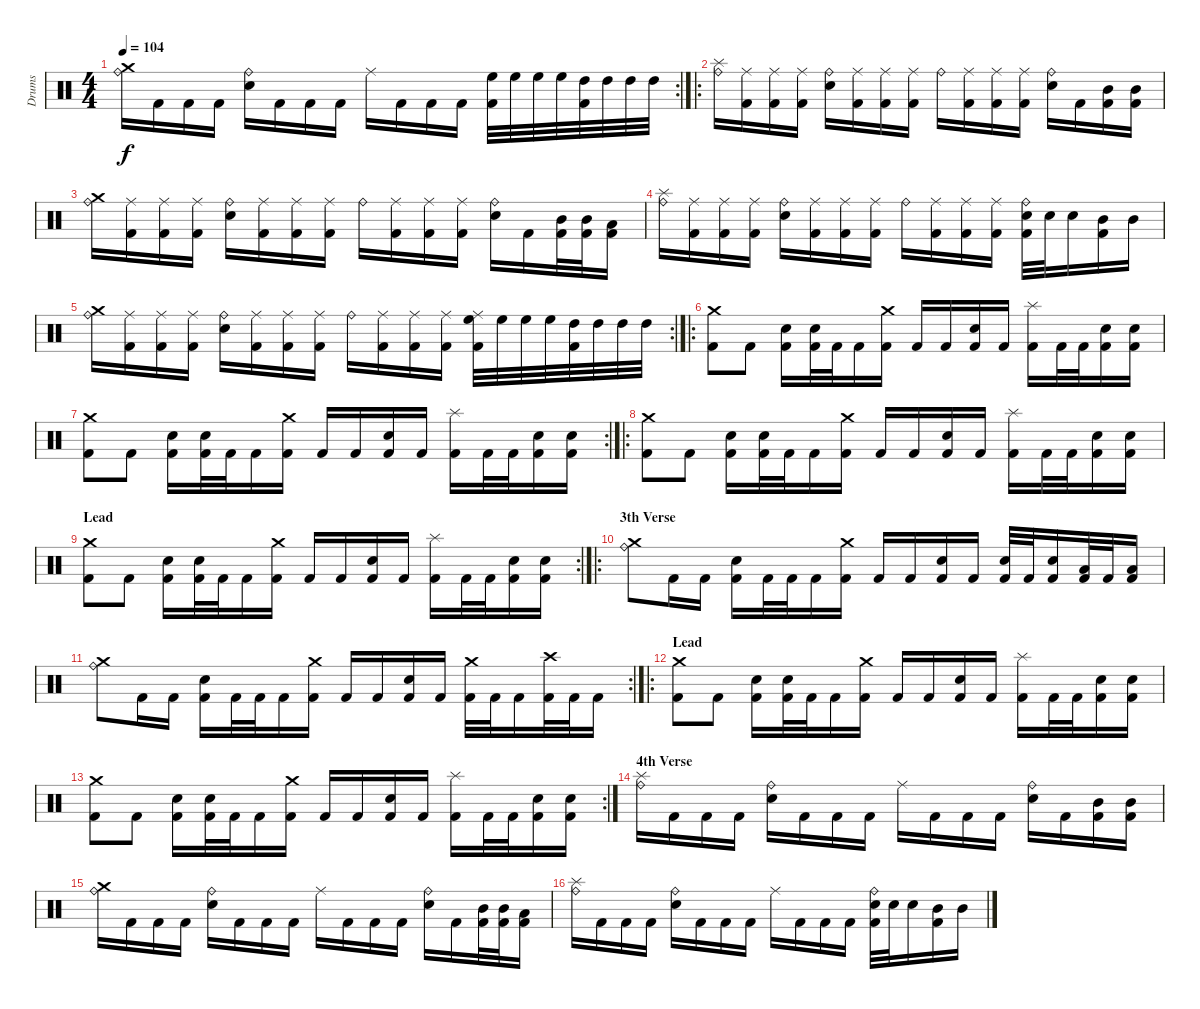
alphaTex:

\track ("Drums" "Drums") {instrument percussion}
\staff {score}
\articulation defaults
\rc 2
\ts (4 4)
\tempo 104
\clef neutral
\ks c
("Ride (bell)" "Crash medium (hit)").16{dy f} "Kick (hit) 2".16 "Kick (hit) 2".16 "Kick (hit) 2".16 ("Ride (bell)" "Snare (hit) 2").16 "Kick (hit) 2".16 "Kick (hit) 2".16 "Kick (hit) 2".16 "Ride (middle)".16 "Kick (hit) 2".16 "Kick (hit) 2".16 "Kick (hit) 2".16 ("High Floor Tom (hit)" "Kick (hit) 2").32 "High Floor Tom (hit)".32 "High Floor Tom (hit)".32 "High Floor Tom (hit)".32 ("High Tom (hit)" "Kick (hit) 2").32 "High Tom (hit)".32 "High Tom (hit)".32 "High Tom (hit)".32 |
\ro
("Ride (bell)" "Splash (hit)").16 ("Ride (middle)" "Kick (hit) 2").16 ("Ride (middle)" "Kick (hit) 2").16 ("Ride (middle)" "Kick (hit) 2").16 ("Ride (bell)" "Snare (hit) 2").16 ("Ride (middle)" "Kick (hit) 2").16 ("Ride (middle)" "Kick (hit) 2").16 ("Ride (middle)" "Kick (hit) 2").16 "Ride (bell)".16 ("Ride (middle)" "Kick (hit) 2").16 ("Ride (middle)" "Kick (hit) 2").16 ("Ride (middle)" "Kick (hit) 2").16 ("Ride (bell)" "Snare (hit) 2").16 "Kick (hit) 2".16 ("Mid Tom (hit)" "Kick (hit) 2").16 ("Mid Tom (hit)" "Kick (hit) 2").16 |
("Ride (bell)" "Crash medium (hit)").16 ("Ride (middle)" "Kick (hit) 2").16 ("Ride (middle)" "Kick (hit) 2").16 ("Ride (middle)" "Kick (hit) 2").16 ("Ride (bell)" "Snare (hit) 2").16 ("Ride (middle)" "Kick (hit) 2").16 ("Ride (middle)" "Kick (hit) 2").16 ("Ride (middle)" "Kick (hit) 2").16 "Ride (bell)".16 ("Ride (middle)" "Kick (hit) 2").16 ("Ride (middle)" "Kick (hit) 2").16 ("Ride (middle)" "Kick (hit) 2").16 ("Ride (bell)" "Snare (hit) 2").16 "Kick (hit) 2".16 ("Mid Tom (hit)" "Kick (hit) 2").32 ("Mid Tom (hit)" "Kick (hit) 2").32 ("Low Tom (hit)" "Kick (hit) 2").16 |
("Ride (bell)" "Splash (hit)").16 ("Ride (middle)" "Kick (hit) 2").16 ("Ride (middle)" "Kick (hit) 2").16 ("Ride (middle)" "Kick (hit) 2").16 ("Ride (bell)" "Snare (hit) 2").16 ("Ride (middle)" "Kick (hit) 2").16 ("Ride (middle)" "Kick (hit) 2").16 ("Ride (middle)" "Kick (hit) 2").16 "Ride (bell)".16 ("Ride (middle)" "Kick (hit) 2").16 ("Ride (middle)" "Kick (hit) 2").16 ("Ride (middle)" "Kick (hit) 2").16 ("Ride (bell)" "Snare (hit) 2" "Kick (hit) 2").32 "Snare (hit) 2".32 "Snare (hit) 2".16 ("Mid Tom (hit)" "Kick (hit) 2").16 "Mid Tom (hit)".16 |
\rc 2
("Ride (bell)" "Crash medium (hit)").16 ("Ride (middle)" "Kick (hit) 2").16 ("Ride (middle)" "Kick (hit) 2").16 ("Ride (middle)" "Kick (hit) 2").16 ("Ride (bell)" "Snare (hit) 2").16 ("Ride (middle)" "Kick (hit) 2").16 ("Ride (middle)" "Kick (hit) 2").16 ("Ride (middle)" "Kick (hit) 2").16 "Ride (bell)".16 ("Ride (middle)" "Kick (hit) 2").16 ("Ride (middle)" "Kick (hit) 2").16 ("Ride (middle)" "Kick (hit) 2").16 ("Ride (middle)" "High Floor Tom (hit)" "Kick (hit) 2").32 "High Floor Tom (hit)".32 "High Floor Tom (hit)".32 "High Floor Tom (hit)".32 ("High Tom (hit)" "Kick (hit) 2").32 "High Tom (hit)".32 "High Tom (hit)".32 "High Tom (hit)".32 |
\ro
("Crash medium (hit)" "Kick (hit) 2").8 "Kick (hit) 2".8 ("Snare (hit) 2" "Kick (hit) 2").16 ("Snare (hit) 2" "Kick (hit) 2").32 "Kick (hit) 2".32 "Kick (hit) 2".16 ("Crash medium (hit)" "Kick (hit) 2").16 "Kick (hit) 2".16 "Kick (hit) 2".16 ("Snare (hit) 2" "Kick (hit) 2").16 "Kick (hit) 2".16 ("Splash (hit)" "Kick (hit) 2").16 "Kick (hit) 2".32 "Kick (hit) 2".32 ("Snare (hit) 2" "Kick (hit) 2").16 ("Snare (hit) 2" "Kick (hit) 2").16 |
\rc 2
("Crash medium (hit)" "Kick (hit) 2").8 "Kick (hit) 2".8 ("Snare (hit) 2" "Kick (hit) 2").16 ("Snare (hit) 2" "Kick (hit) 2").32 "Kick (hit) 2".32 "Kick (hit) 2".16 ("Crash medium (hit)" "Kick (hit) 2").16 "Kick (hit) 2".16 "Kick (hit) 2".16 ("Snare (hit) 2" "Kick (hit) 2").16 "Kick (hit) 2".16 ("Splash (hit)" "Kick (hit) 2").16 "Kick (hit) 2".32 "Kick (hit) 2".32 ("Snare (hit) 2" "Kick (hit) 2").16 ("Snare (hit) 2" "Kick (hit) 2").16 |
\ro
("Crash medium (hit)" "Kick (hit) 2").8 "Kick (hit) 2".8 ("Snare (hit) 2" "Kick (hit) 2").16 ("Snare (hit) 2" "Kick (hit) 2").32 "Kick (hit) 2".32 "Kick (hit) 2".16 ("Crash medium (hit)" "Kick (hit) 2").16 "Kick (hit) 2".16 "Kick (hit) 2".16 ("Snare (hit) 2" "Kick (hit) 2").16 "Kick (hit) 2".16 ("Splash (hit)" "Kick (hit) 2").16 "Kick (hit) 2".32 "Kick (hit) 2".32 ("Snare (hit) 2" "Kick (hit) 2").16 ("Snare (hit) 2" "Kick (hit) 2").16 |
\rc 2
\section ("" "Lead")
("Crash medium (hit)" "Kick (hit) 2").8 "Kick (hit) 2".8 ("Snare (hit) 2" "Kick (hit) 2").16 ("Snare (hit) 2" "Kick (hit) 2").32 "Kick (hit) 2".32 "Kick (hit) 2".16 ("Crash medium (hit)" "Kick (hit) 2").16 "Kick (hit) 2".16 "Kick (hit) 2".16 ("Snare (hit) 2" "Kick (hit) 2").16 "Kick (hit) 2".16 ("Splash (hit)" "Kick (hit) 2").16 "Kick (hit) 2".32 "Kick (hit) 2".32 ("Snare (hit) 2" "Kick (hit) 2").16 ("Snare (hit) 2" "Kick (hit) 2").16 |
\ro
\section ("" "3th Verse")
("Crash medium (hit)" "Ride (bell)").8 "Kick (hit) 2".16 "Kick (hit) 2".16 ("Snare (hit) 2" "Kick (hit) 2").16 "Kick (hit) 2".32 "Kick (hit) 2".32 "Kick (hit) 2".16 ("Crash medium (hit)" "Kick (hit) 2").16 "Kick (hit) 2".16 "Kick (hit) 2".16 ("Snare (hit) 2" "Kick (hit) 2").16 "Kick (hit) 2".16 ("Snare (hit) 2" "Kick (hit) 2").32 "Kick (hit) 2".32 ("Snare (hit) 2" "Kick (hit) 2").16 ("Low Tom (hit)" "Kick (hit) 2").32 "Kick (hit) 2".32 ("Low Tom (hit)" "Kick (hit) 2").16 |
\rc 2
("Crash medium (hit)" "Ride (bell)").8 "Kick (hit) 2".16 "Kick (hit) 2".16 ("Snare (hit) 2" "Kick (hit) 2").16 "Kick (hit) 2".32 "Kick (hit) 2".32 "Kick (hit) 2".16 ("Crash medium (hit)" "Kick (hit) 2").16 "Kick (hit) 2".16 "Kick (hit) 2".16 ("Snare (hit) 2" "Kick (hit) 2").16 "Kick (hit) 2".16 ("Crash medium (hit)" "Kick (hit) 2").32 "Kick (hit) 2".32 "Kick (hit) 2".16 ("Crash high (hit)" "Kick (hit) 2").32 "Kick (hit) 2".32 "Kick (hit) 2".16 |
\ro
\section ("" "Lead")
("Crash medium (hit)" "Kick (hit) 2").8 "Kick (hit) 2".8 ("Snare (hit) 2" "Kick (hit) 2").16 ("Snare (hit) 2" "Kick (hit) 2").32 "Kick (hit) 2".32 "Kick (hit) 2".16 ("Crash medium (hit)" "Kick (hit) 2").16 "Kick (hit) 2".16 "Kick (hit) 2".16 ("Snare (hit) 2" "Kick (hit) 2").16 "Kick (hit) 2".16 ("Splash (hit)" "Kick (hit) 2").16 "Kick (hit) 2".32 "Kick (hit) 2".32 ("Snare (hit) 2" "Kick (hit) 2").16 ("Snare (hit) 2" "Kick (hit) 2").16 |
\rc 2
("Crash medium (hit)" "Kick (hit) 2").8 "Kick (hit) 2".8 ("Snare (hit) 2" "Kick (hit) 2").16 ("Snare (hit) 2" "Kick (hit) 2").32 "Kick (hit) 2".32 "Kick (hit) 2".16 ("Crash medium (hit)" "Kick (hit) 2").16 "Kick (hit) 2".16 "Kick (hit) 2".16 ("Snare (hit) 2" "Kick (hit) 2").16 "Kick (hit) 2".16 ("Splash (hit)" "Kick (hit) 2").16 "Kick (hit) 2".32 "Kick (hit) 2".32 ("Snare (hit) 2" "Kick (hit) 2").16 ("Snare (hit) 2" "Kick (hit) 2").16 |
\section ("" "4th Verse")
("Ride (bell)" "Splash (hit)").16 "Kick (hit) 2".16 "Kick (hit) 2".16 "Kick (hit) 2".16 ("Ride (bell)" "Snare (hit) 2").16 "Kick (hit) 2".16 "Kick (hit) 2".16 "Kick (hit) 2".16 "Ride (middle)".16 "Kick (hit) 2".16 "Kick (hit) 2".16 "Kick (hit) 2".16 ("Ride (bell)" "Snare (hit) 2").16 "Kick (hit) 2".16 ("Mid Tom (hit)" "Kick (hit) 2").16 ("Mid Tom (hit)" "Kick (hit) 2").16 |
("Ride (bell)" "Crash medium (hit)").16 "Kick (hit) 2".16 "Kick (hit) 2".16 "Kick (hit) 2".16 ("Ride (bell)" "Snare (hit) 2").16 "Kick (hit) 2".16 "Kick (hit) 2".16 "Kick (hit) 2".16 "Ride (middle)".16 "Kick (hit) 2".16 "Kick (hit) 2".16 "Kick (hit) 2".16 ("Ride (bell)" "Snare (hit) 2").16 "Kick (hit) 2".16 ("Mid Tom (hit)" "Kick (hit) 2").32 ("Mid Tom (hit)" "Kick (hit) 2").32 ("Low Tom (hit)" "Kick (hit) 2").16 |
("Ride (bell)" "Splash (hit)").16 "Kick (hit) 2".16 "Kick (hit) 2".16 "Kick (hit) 2".16 ("Ride (bell)" "Snare (hit) 2").16 "Kick (hit) 2".16 "Kick (hit) 2".16 "Kick (hit) 2".16 "Ride (middle)".16 "Kick (hit) 2".16 "Kick (hit) 2".16 "Kick (hit) 2".16 ("Ride (bell)" "Snare (hit) 2" "Kick (hit) 2").32 "Snare (hit) 2".32 "Snare (hit) 2".16 ("Mid Tom (hit)" "Kick (hit) 2").16 "Mid Tom (hit)".16
